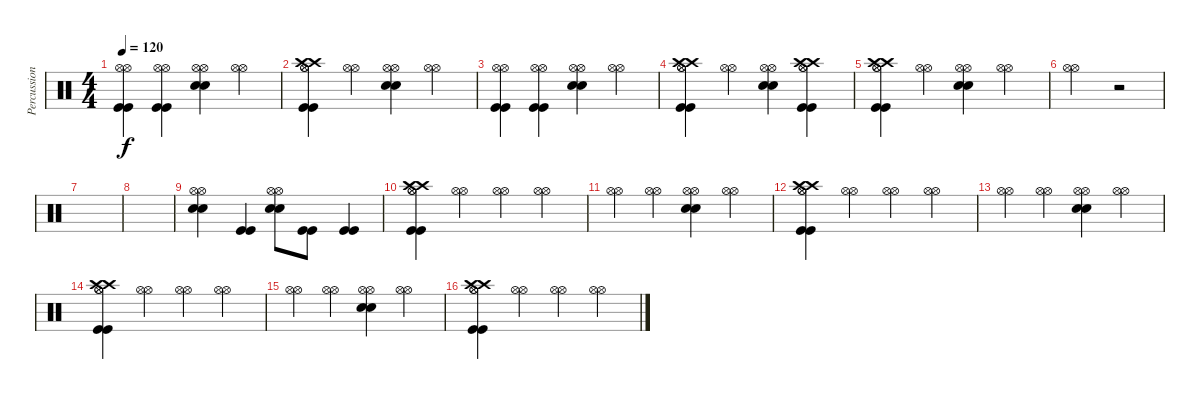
\track ("Percussion" "Percussion") {instrument percussion}
\staff {score}
\articulation defaults
\ts (4 4)
\tempo 120
\clef neutral
\ks c
("Hi-Hat (open)" "Hi-Hat (open)" "Kick (hit)" "Kick (hit)").4{dy f} ("Hi-Hat (open)" "Hi-Hat (open)" "Kick (hit)" "Kick (hit)").4 ("Hi-Hat (open)" "Hi-Hat (open)" "Electric Snare (hit)" "Electric Snare (hit)").4 ("Hi-Hat (open)" "Hi-Hat (open)").4 |
("Hi-Hat (open)" "Hi-Hat (open)" "Kick (hit)" "Kick (hit)" "Crash high (hit)" "Crash high (hit)").4 ("Hi-Hat (open)" "Hi-Hat (open)").4 ("Hi-Hat (open)" "Hi-Hat (open)" "Electric Snare (hit)" "Electric Snare (hit)").4 ("Hi-Hat (open)" "Hi-Hat (open)").4 |
("Hi-Hat (open)" "Hi-Hat (open)" "Kick (hit)" "Kick (hit)").4 ("Hi-Hat (open)" "Hi-Hat (open)" "Kick (hit)" "Kick (hit)").4 ("Hi-Hat (open)" "Hi-Hat (open)" "Electric Snare (hit)" "Electric Snare (hit)").4 ("Hi-Hat (open)" "Hi-Hat (open)").4 |
("Hi-Hat (open)" "Hi-Hat (open)" "Kick (hit)" "Kick (hit)" "Crash high (hit)" "Crash high (hit)").4 ("Hi-Hat (open)" "Hi-Hat (open)").4 ("Hi-Hat (open)" "Hi-Hat (open)" "Electric Snare (hit)" "Electric Snare (hit)").4 ("Hi-Hat (open)" "Hi-Hat (open)" "Kick (hit)" "Kick (hit)" "Crash high (hit)" "Crash high (hit)").4 |
("Hi-Hat (open)" "Hi-Hat (open)" "Kick (hit)" "Kick (hit)" "Crash high (hit)" "Crash high (hit)").4 ("Hi-Hat (open)" "Hi-Hat (open)").4 ("Hi-Hat (open)" "Hi-Hat (open)" "Electric Snare (hit)" "Electric Snare (hit)").4 ("Hi-Hat (open)" "Hi-Hat (open)").4 |
("Hi-Hat (open)" "Hi-Hat (open)").2 r.2 |
|
|
("Hi-Hat (open)" "Hi-Hat (open)" "Electric Snare (hit)" "Electric Snare (hit)").4 ("Kick (hit)" "Kick (hit)").4 ("Hi-Hat (open)" "Hi-Hat (open)" "Electric Snare (hit)" "Electric Snare (hit)").8 ("Kick (hit)" "Kick (hit)").8 ("Kick (hit)" "Kick (hit)").4 |
("Hi-Hat (open)" "Hi-Hat (open)" "Kick (hit)" "Kick (hit)" "Crash high (hit)" "Crash high (hit)").4 ("Hi-Hat (open)" "Hi-Hat (open)").4 ("Hi-Hat (open)" "Hi-Hat (open)").4 ("Hi-Hat (open)" "Hi-Hat (open)").4 |
("Hi-Hat (open)" "Hi-Hat (open)").4 ("Hi-Hat (open)" "Hi-Hat (open)").4 ("Hi-Hat (open)" "Hi-Hat (open)" "Electric Snare (hit)" "Electric Snare (hit)").4 ("Hi-Hat (open)" "Hi-Hat (open)").4 |
("Hi-Hat (open)" "Hi-Hat (open)" "Kick (hit)" "Kick (hit)" "Crash high (hit)" "Crash high (hit)").4 ("Hi-Hat (open)" "Hi-Hat (open)").4 ("Hi-Hat (open)" "Hi-Hat (open)").4 ("Hi-Hat (open)" "Hi-Hat (open)").4 |
("Hi-Hat (open)" "Hi-Hat (open)").4 ("Hi-Hat (open)" "Hi-Hat (open)").4 ("Hi-Hat (open)" "Hi-Hat (open)" "Electric Snare (hit)" "Electric Snare (hit)").4 ("Hi-Hat (open)" "Hi-Hat (open)").4 |
("Hi-Hat (open)" "Hi-Hat (open)" "Kick (hit)" "Kick (hit)" "Crash high (hit)" "Crash high (hit)").4 ("Hi-Hat (open)" "Hi-Hat (open)").4 ("Hi-Hat (open)" "Hi-Hat (open)").4 ("Hi-Hat (open)" "Hi-Hat (open)").4 |
("Hi-Hat (open)" "Hi-Hat (open)").4 ("Hi-Hat (open)" "Hi-Hat (open)").4 ("Hi-Hat (open)" "Hi-Hat (open)" "Electric Snare (hit)" "Electric Snare (hit)").4 ("Hi-Hat (open)" "Hi-Hat (open)").4 |
("Hi-Hat (open)" "Hi-Hat (open)" "Kick (hit)" "Kick (hit)" "Crash high (hit)" "Crash high (hit)").4 ("Hi-Hat (open)" "Hi-Hat (open)").4 ("Hi-Hat (open)" "Hi-Hat (open)").4 ("Hi-Hat (open)" "Hi-Hat (open)").4
